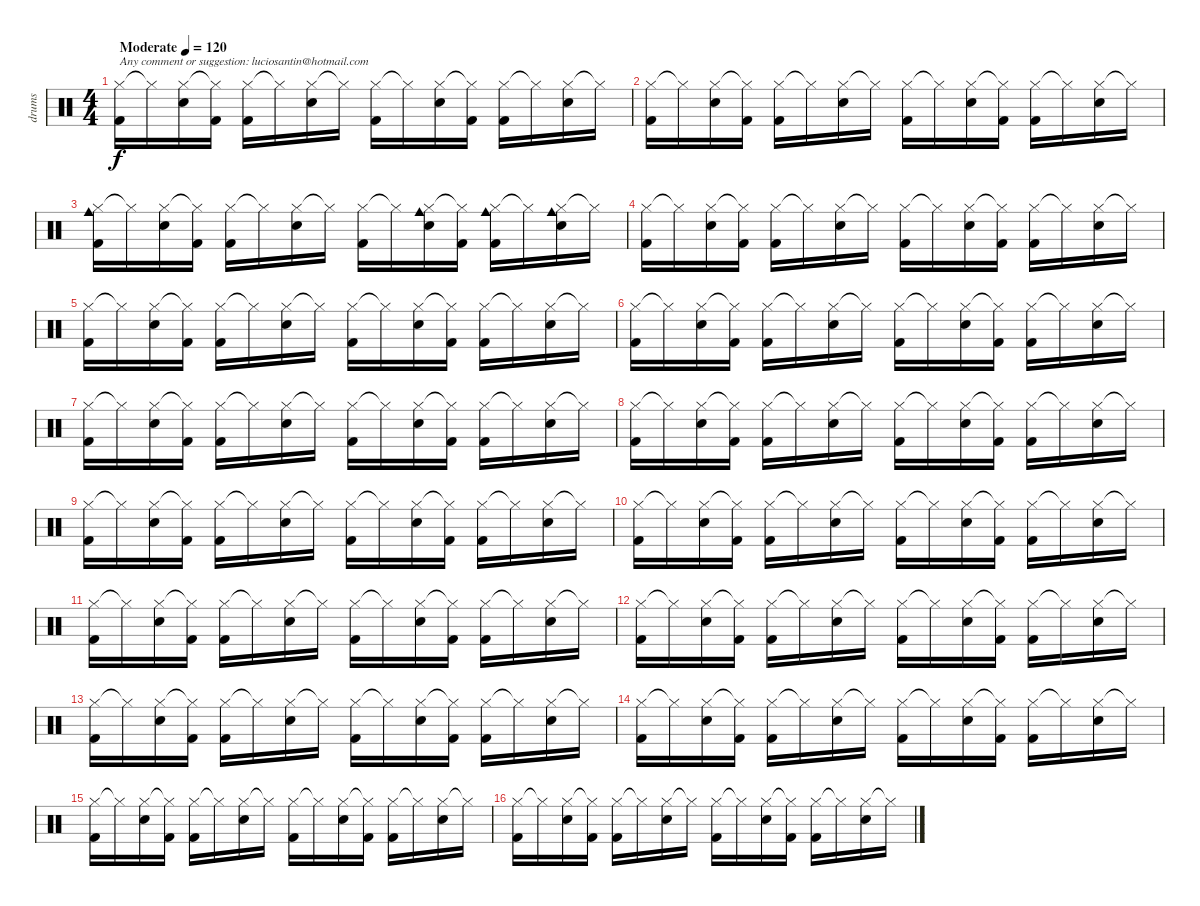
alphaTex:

\track ("drums" "drums") {instrument percussion}
\staff {score}
\articulation defaults
\ts (4 4)
\tempo (120 "Moderate")
\clef neutral
\ks c
("Hi-Hat (closed)" "Kick (hit) 2").16{txt "Any comment or suggestion: luciosantin@hotmail.com" dy f} "Hi-Hat (closed)"{t}.16 ("Hi-Hat (closed)" "Snare (hit) 2").16 ("Hi-Hat (closed)"{t} "Kick (hit) 2").16 ("Hi-Hat (closed)" "Kick (hit) 2").16 "Hi-Hat (closed)"{t}.16 ("Hi-Hat (closed)" "Snare (hit) 2").16 "Hi-Hat (closed)"{t}.16 ("Hi-Hat (closed)" "Kick (hit) 2").16 "Hi-Hat (closed)"{t}.16 ("Hi-Hat (closed)" "Snare (hit) 2").16 ("Hi-Hat (closed)"{t} "Kick (hit) 2").16 ("Hi-Hat (closed)" "Kick (hit) 2").16 "Hi-Hat (closed)"{t}.16 ("Hi-Hat (closed)" "Snare (hit) 2").16 "Hi-Hat (closed)"{t}.16 |
("Hi-Hat (closed)" "Kick (hit) 2").16 "Hi-Hat (closed)"{t}.16 ("Hi-Hat (closed)" "Snare (hit) 2").16 ("Hi-Hat (closed)"{t} "Kick (hit) 2").16 ("Hi-Hat (closed)" "Kick (hit) 2").16 "Hi-Hat (closed)"{t}.16 ("Hi-Hat (closed)" "Snare (hit) 2").16 "Hi-Hat (closed)"{t}.16 ("Hi-Hat (closed)" "Kick (hit) 2").16 "Hi-Hat (closed)"{t}.16 ("Hi-Hat (closed)" "Snare (hit) 2").16 ("Hi-Hat (closed)"{t} "Kick (hit) 2").16 ("Hi-Hat (closed)" "Kick (hit) 2").16 "Hi-Hat (closed)"{t}.16 ("Hi-Hat (closed)" "Snare (hit) 2").16 "Hi-Hat (closed)"{t}.16 |
("Hi-Hat (closed)" "Cowbell medium (hit)" "Kick (hit) 2").16 "Hi-Hat (closed)"{t}.16 ("Hi-Hat (closed)" "Snare (hit) 2").16 ("Hi-Hat (closed)"{t} "Kick (hit) 2").16 ("Hi-Hat (closed)" "Kick (hit) 2").16 "Hi-Hat (closed)"{t}.16 ("Hi-Hat (closed)" "Snare (hit) 2").16 "Hi-Hat (closed)"{t}.16 ("Hi-Hat (closed)" "Kick (hit) 2").16 "Hi-Hat (closed)"{t}.16 ("Hi-Hat (closed)" "Snare (hit) 2" "Cowbell medium (hit)").16 ("Hi-Hat (closed)"{t} "Kick (hit) 2").16 ("Hi-Hat (closed)" "Cowbell medium (hit)" "Kick (hit) 2").16 "Hi-Hat (closed)"{t}.16 ("Hi-Hat (closed)" "Cowbell medium (hit)" "Snare (hit) 2").16 "Hi-Hat (closed)"{t}.16 |
("Hi-Hat (closed)" "Kick (hit) 2").16 "Hi-Hat (closed)"{t}.16 ("Hi-Hat (closed)" "Snare (hit) 2").16 ("Hi-Hat (closed)"{t} "Kick (hit) 2").16 ("Hi-Hat (closed)" "Kick (hit) 2").16 "Hi-Hat (closed)"{t}.16 ("Hi-Hat (closed)" "Snare (hit) 2").16 "Hi-Hat (closed)"{t}.16 ("Hi-Hat (closed)" "Kick (hit) 2").16 "Hi-Hat (closed)"{t}.16 ("Hi-Hat (closed)" "Snare (hit) 2").16 ("Hi-Hat (closed)"{t} "Kick (hit) 2").16 ("Hi-Hat (closed)" "Kick (hit) 2").16 "Hi-Hat (closed)"{t}.16 ("Hi-Hat (closed)" "Snare (hit) 2").16 "Hi-Hat (closed)"{t}.16 |
("Hi-Hat (closed)" "Kick (hit) 2").16 "Hi-Hat (closed)"{t}.16 ("Hi-Hat (closed)" "Snare (hit) 2").16 ("Hi-Hat (closed)"{t} "Kick (hit) 2").16 ("Hi-Hat (closed)" "Kick (hit) 2").16 "Hi-Hat (closed)"{t}.16 ("Hi-Hat (closed)" "Snare (hit) 2").16 "Hi-Hat (closed)"{t}.16 ("Hi-Hat (closed)" "Kick (hit) 2").16 "Hi-Hat (closed)"{t}.16 ("Hi-Hat (closed)" "Snare (hit) 2").16 ("Hi-Hat (closed)"{t} "Kick (hit) 2").16 ("Hi-Hat (closed)" "Kick (hit) 2").16 "Hi-Hat (closed)"{t}.16 ("Hi-Hat (closed)" "Snare (hit) 2").16 "Hi-Hat (closed)"{t}.16 |
("Hi-Hat (closed)" "Kick (hit) 2").16 "Hi-Hat (closed)"{t}.16 ("Hi-Hat (closed)" "Snare (hit) 2").16 ("Hi-Hat (closed)"{t} "Kick (hit) 2").16 ("Hi-Hat (closed)" "Kick (hit) 2").16 "Hi-Hat (closed)"{t}.16 ("Hi-Hat (closed)" "Snare (hit) 2").16 "Hi-Hat (closed)"{t}.16 ("Hi-Hat (closed)" "Kick (hit) 2").16 "Hi-Hat (closed)"{t}.16 ("Hi-Hat (closed)" "Snare (hit) 2").16 ("Hi-Hat (closed)"{t} "Kick (hit) 2").16 ("Hi-Hat (closed)" "Kick (hit) 2").16 "Hi-Hat (closed)"{t}.16 ("Hi-Hat (closed)" "Snare (hit) 2").16 "Hi-Hat (closed)"{t}.16 |
("Hi-Hat (closed)" "Kick (hit) 2").16 "Hi-Hat (closed)"{t}.16 ("Hi-Hat (closed)" "Snare (hit) 2").16 ("Hi-Hat (closed)"{t} "Kick (hit) 2").16 ("Hi-Hat (closed)" "Kick (hit) 2").16 "Hi-Hat (closed)"{t}.16 ("Hi-Hat (closed)" "Snare (hit) 2").16 "Hi-Hat (closed)"{t}.16 ("Hi-Hat (closed)" "Kick (hit) 2").16 "Hi-Hat (closed)"{t}.16 ("Hi-Hat (closed)" "Snare (hit) 2").16 ("Hi-Hat (closed)"{t} "Kick (hit) 2").16 ("Hi-Hat (closed)" "Kick (hit) 2").16 "Hi-Hat (closed)"{t}.16 ("Hi-Hat (closed)" "Snare (hit) 2").16 "Hi-Hat (closed)"{t}.16 |
("Hi-Hat (closed)" "Kick (hit) 2").16 "Hi-Hat (closed)"{t}.16 ("Hi-Hat (closed)" "Snare (hit) 2").16 ("Hi-Hat (closed)"{t} "Kick (hit) 2").16 ("Hi-Hat (closed)" "Kick (hit) 2").16 "Hi-Hat (closed)"{t}.16 ("Hi-Hat (closed)" "Snare (hit) 2").16 "Hi-Hat (closed)"{t}.16 ("Hi-Hat (closed)" "Kick (hit) 2").16 "Hi-Hat (closed)"{t}.16 ("Hi-Hat (closed)" "Snare (hit) 2").16 ("Hi-Hat (closed)"{t} "Kick (hit) 2").16 ("Hi-Hat (closed)" "Kick (hit) 2").16 "Hi-Hat (closed)"{t}.16 ("Hi-Hat (closed)" "Snare (hit) 2").16 "Hi-Hat (closed)"{t}.16 |
("Hi-Hat (closed)" "Kick (hit) 2").16 "Hi-Hat (closed)"{t}.16 ("Hi-Hat (closed)" "Snare (hit) 2").16 ("Hi-Hat (closed)"{t} "Kick (hit) 2").16 ("Hi-Hat (closed)" "Kick (hit) 2").16 "Hi-Hat (closed)"{t}.16 ("Hi-Hat (closed)" "Snare (hit) 2").16 "Hi-Hat (closed)"{t}.16 ("Hi-Hat (closed)" "Kick (hit) 2").16 "Hi-Hat (closed)"{t}.16 ("Hi-Hat (closed)" "Snare (hit) 2").16 ("Hi-Hat (closed)"{t} "Kick (hit) 2").16 ("Hi-Hat (closed)" "Kick (hit) 2").16 "Hi-Hat (closed)"{t}.16 ("Hi-Hat (closed)" "Snare (hit) 2").16 "Hi-Hat (closed)"{t}.16 |
("Hi-Hat (closed)" "Kick (hit) 2").16 "Hi-Hat (closed)"{t}.16 ("Hi-Hat (closed)" "Snare (hit) 2").16 ("Hi-Hat (closed)"{t} "Kick (hit) 2").16 ("Hi-Hat (closed)" "Kick (hit) 2").16 "Hi-Hat (closed)"{t}.16 ("Hi-Hat (closed)" "Snare (hit) 2").16 "Hi-Hat (closed)"{t}.16 ("Hi-Hat (closed)" "Kick (hit) 2").16 "Hi-Hat (closed)"{t}.16 ("Hi-Hat (closed)" "Snare (hit) 2").16 ("Hi-Hat (closed)"{t} "Kick (hit) 2").16 ("Hi-Hat (closed)" "Kick (hit) 2").16 "Hi-Hat (closed)"{t}.16 ("Hi-Hat (closed)" "Snare (hit) 2").16 "Hi-Hat (closed)"{t}.16 |
("Hi-Hat (closed)" "Kick (hit) 2").16 "Hi-Hat (closed)"{t}.16 ("Hi-Hat (closed)" "Snare (hit) 2").16 ("Hi-Hat (closed)"{t} "Kick (hit) 2").16 ("Hi-Hat (closed)" "Kick (hit) 2").16 "Hi-Hat (closed)"{t}.16 ("Hi-Hat (closed)" "Snare (hit) 2").16 "Hi-Hat (closed)"{t}.16 ("Hi-Hat (closed)" "Kick (hit) 2").16 "Hi-Hat (closed)"{t}.16 ("Hi-Hat (closed)" "Snare (hit) 2").16 ("Hi-Hat (closed)"{t} "Kick (hit) 2").16 ("Hi-Hat (closed)" "Kick (hit) 2").16 "Hi-Hat (closed)"{t}.16 ("Hi-Hat (closed)" "Snare (hit) 2").16 "Hi-Hat (closed)"{t}.16 |
("Hi-Hat (closed)" "Kick (hit) 2").16 "Hi-Hat (closed)"{t}.16 ("Hi-Hat (closed)" "Snare (hit) 2").16 ("Hi-Hat (closed)"{t} "Kick (hit) 2").16 ("Hi-Hat (closed)" "Kick (hit) 2").16 "Hi-Hat (closed)"{t}.16 ("Hi-Hat (closed)" "Snare (hit) 2").16 "Hi-Hat (closed)"{t}.16 ("Hi-Hat (closed)" "Kick (hit) 2").16 "Hi-Hat (closed)"{t}.16 ("Hi-Hat (closed)" "Snare (hit) 2").16 ("Hi-Hat (closed)"{t} "Kick (hit) 2").16 ("Hi-Hat (closed)" "Kick (hit) 2").16 "Hi-Hat (closed)"{t}.16 ("Hi-Hat (closed)" "Snare (hit) 2").16 "Hi-Hat (closed)"{t}.16 |
("Hi-Hat (closed)" "Kick (hit) 2").16 "Hi-Hat (closed)"{t}.16 ("Hi-Hat (closed)" "Snare (hit) 2").16 ("Hi-Hat (closed)"{t} "Kick (hit) 2").16 ("Hi-Hat (closed)" "Kick (hit) 2").16 "Hi-Hat (closed)"{t}.16 ("Hi-Hat (closed)" "Snare (hit) 2").16 "Hi-Hat (closed)"{t}.16 ("Hi-Hat (closed)" "Kick (hit) 2").16 "Hi-Hat (closed)"{t}.16 ("Hi-Hat (closed)" "Snare (hit) 2").16 ("Hi-Hat (closed)"{t} "Kick (hit) 2").16 ("Hi-Hat (closed)" "Kick (hit) 2").16 "Hi-Hat (closed)"{t}.16 ("Hi-Hat (closed)" "Snare (hit) 2").16 "Hi-Hat (closed)"{t}.16 |
("Hi-Hat (closed)" "Kick (hit) 2").16 "Hi-Hat (closed)"{t}.16 ("Hi-Hat (closed)" "Snare (hit) 2").16 ("Hi-Hat (closed)"{t} "Kick (hit) 2").16 ("Hi-Hat (closed)" "Kick (hit) 2").16 "Hi-Hat (closed)"{t}.16 ("Hi-Hat (closed)" "Snare (hit) 2").16 "Hi-Hat (closed)"{t}.16 ("Hi-Hat (closed)" "Kick (hit) 2").16 "Hi-Hat (closed)"{t}.16 ("Hi-Hat (closed)" "Snare (hit) 2").16 ("Hi-Hat (closed)"{t} "Kick (hit) 2").16 ("Hi-Hat (closed)" "Kick (hit) 2").16 "Hi-Hat (closed)"{t}.16 ("Hi-Hat (closed)" "Snare (hit) 2").16 "Hi-Hat (closed)"{t}.16 |
("Hi-Hat (closed)" "Kick (hit) 2").16 "Hi-Hat (closed)"{t}.16 ("Hi-Hat (closed)" "Snare (hit) 2").16 ("Hi-Hat (closed)"{t} "Kick (hit) 2").16 ("Hi-Hat (closed)" "Kick (hit) 2").16 "Hi-Hat (closed)"{t}.16 ("Hi-Hat (closed)" "Snare (hit) 2").16 "Hi-Hat (closed)"{t}.16 ("Hi-Hat (closed)" "Kick (hit) 2").16 "Hi-Hat (closed)"{t}.16 ("Hi-Hat (closed)" "Snare (hit) 2").16 ("Hi-Hat (closed)"{t} "Kick (hit) 2").16 ("Hi-Hat (closed)" "Kick (hit) 2").16 "Hi-Hat (closed)"{t}.16 ("Hi-Hat (closed)" "Snare (hit) 2").16 "Hi-Hat (closed)"{t}.16 |
("Hi-Hat (closed)" "Kick (hit) 2").16 "Hi-Hat (closed)"{t}.16 ("Hi-Hat (closed)" "Snare (hit) 2").16 ("Hi-Hat (closed)"{t} "Kick (hit) 2").16 ("Hi-Hat (closed)" "Kick (hit) 2").16 "Hi-Hat (closed)"{t}.16 ("Hi-Hat (closed)" "Snare (hit) 2").16 "Hi-Hat (closed)"{t}.16 ("Hi-Hat (closed)" "Kick (hit) 2").16 "Hi-Hat (closed)"{t}.16 ("Hi-Hat (closed)" "Snare (hit) 2").16 ("Hi-Hat (closed)"{t} "Kick (hit) 2").16 ("Hi-Hat (closed)" "Kick (hit) 2").16 "Hi-Hat (closed)"{t}.16 ("Hi-Hat (closed)" "Snare (hit) 2").16 "Hi-Hat (closed)"{t}.16
